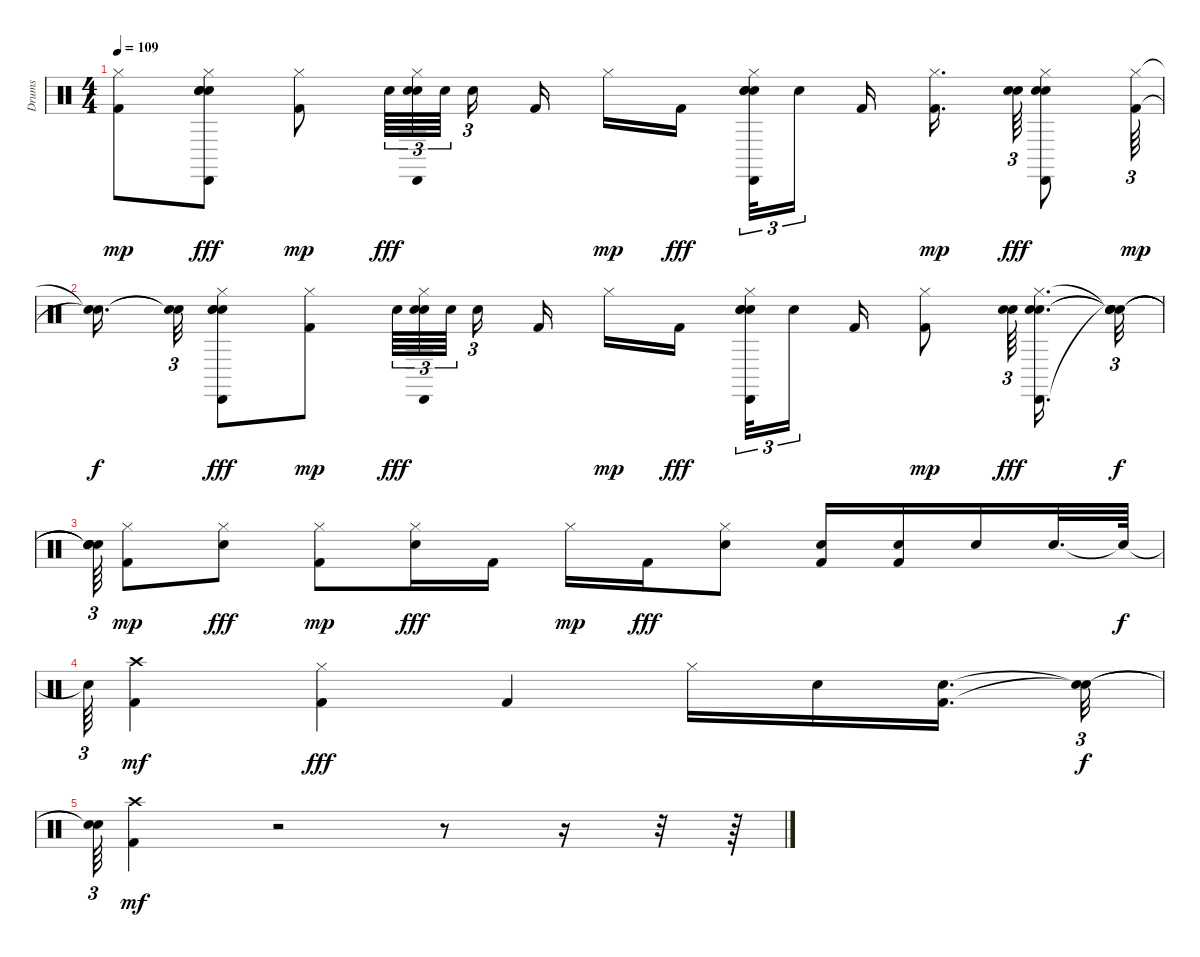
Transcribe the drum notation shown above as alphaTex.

\track ("Drums" "Drums") {instrument percussion}
\staff {score}
\articulation defaults
\ts (4 4)
\tempo 109
\clef neutral
\ks c
("Kick (hit) 2" "Hi-Hat (closed)").8{dy mp} ("Cabasa (hit)" "Snare (hit) 2" "Hi-Hat (closed)" "Hand Clap (hit)" "Hand Clap (hit)").8{dy fff} ("Kick (hit) 2" "Hi-Hat (closed)").8{dy mp} "Hand Clap (hit)".64{tu (3 2) dy fff} ("Cabasa (hit)" "Snare (hit) 2" "Hi-Hat (closed)" "Hand Clap (hit)").64{tu (3 2)} "Hand Clap (hit)".64{tu (3 2) beam splitsecondary} "Hand Clap (hit)".16{tu (3 2)} "Kick (hit) 2".16 "Hi-Hat (closed)".16{dy mp} "Kick (hit) 2".16{dy fff beam splitsecondary} ("Cabasa (hit)" "Snare (hit) 2" "Hi-Hat (closed)" "Hand Clap (hit)" "Hand Clap (hit)").32{tu (3 2)} "Hand Clap (hit)".16{tu (3 2) beam splitsecondary} "Kick (hit) 2".16 ("Kick (hit) 2" "Hi-Hat (closed)").16{d dy mp beam splitsecondary} ("Hand Clap (hit)" "Hand Clap (hit)").64{tu (3 2) dy fff} ("Cabasa (hit)" "Snare (hit) 2" "Hi-Hat (closed)" "Hand Clap (hit)").8 ("Kick (hit) 2" "Hi-Hat (closed)").64{tu (3 2) dy mp} |
("Snare (hit)"{t} "Snare (hit)"{t}).16{d dy f beam splitsecondary} ("Snare (hit)"{t} "Snare (hit)"{t}).32{tu (3 2)} ("Cabasa (hit)" "Snare (hit) 2" "Hi-Hat (closed)" "Hand Clap (hit)" "Hand Clap (hit)").8{dy fff} ("Kick (hit) 2" "Hi-Hat (closed)").8{dy mp} "Hand Clap (hit)".64{tu (3 2) dy fff} ("Cabasa (hit)" "Snare (hit) 2" "Hi-Hat (closed)" "Hand Clap (hit)").64{tu (3 2)} "Hand Clap (hit)".64{tu (3 2) beam splitsecondary} "Hand Clap (hit)".16{tu (3 2)} "Kick (hit) 2".16 "Hi-Hat (closed)".16{dy mp} "Kick (hit) 2".16{dy fff beam splitsecondary} ("Cabasa (hit)" "Snare (hit) 2" "Hi-Hat (closed)" "Hand Clap (hit)" "Hand Clap (hit)").32{tu (3 2)} "Hand Clap (hit)".16{tu (3 2) beam splitsecondary} "Kick (hit) 2".16 ("Kick (hit) 2" "Hi-Hat (closed)").8{dy mp} ("Hand Clap (hit)" "Hand Clap (hit)").64{tu (3 2) dy fff beam splitsecondary} ("Cabasa (hit)" "Snare (hit) 2" "Hi-Hat (closed)" "Hand Clap (hit)").16{d} ("Snare (hit)"{t} "Snare (hit)"{t} "Snare (hit)"{t} "Snare (hit)"{t}).32{tu (3 2) dy f} |
("Snare (hit)"{t} "Snare (hit)"{t} "Snare (hit)"{t} "Snare (hit)"{t}).64{tu (3 2)} ("Kick (hit) 2" "Hi-Hat (closed)").8{dy mp} ("Snare (hit) 2" "Hi-Hat (closed)").8{dy fff} ("Kick (hit) 2" "Hi-Hat (closed)").8{dy mp} ("Snare (hit) 2" "Hi-Hat (closed)").16{dy fff} "Kick (hit) 2".16 "Hi-Hat (closed)".16{dy mp} "Kick (hit) 2".16{dy fff} ("Snare (hit) 2" "Hi-Hat (closed)").8 ("Snare (hit) 2" "Kick (hit) 2").16 ("Snare (hit) 2" "Kick (hit) 2").16 "Snare (hit) 2".16 "Snare (hit) 2".32{d} "Snare (hit)"{t}.64{dy f} |
"Snare (hit)"{t}.64{tu (3 2)} ("Kick (hit) 2" "Crash high (hit)").4{dy mf} ("Kick (hit) 2" "Hi-Hat (closed)").4{dy fff} "Kick (hit) 2".4 "Hi-Hat (closed)".16 "Snare (hit) 2".16 ("Snare (hit) 2" "Kick (hit) 2").16{d beam splitsecondary} ("Snare (hit)"{t} "Snare (hit)"{t}).32{tu (3 2) dy f} |
("Snare (hit)"{t} "Snare (hit)"{t}).64{tu (3 2)} ("Kick (hit) 2" "Crash high (hit)").4{dy mf} r.2 r.8 r.16 r.32 r.64
